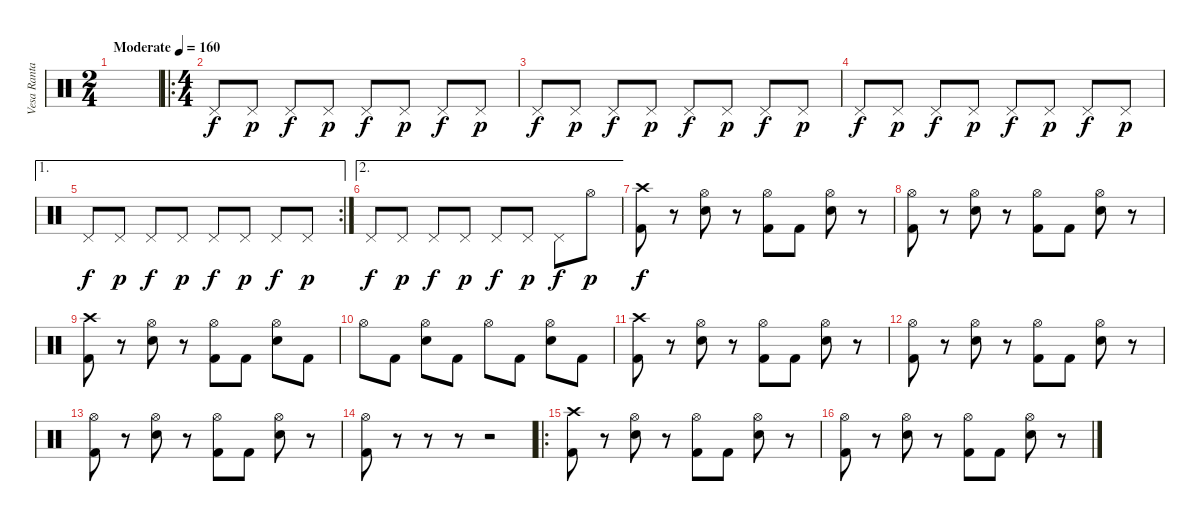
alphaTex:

\track ("Vesa Ranta" "Vesa Ranta") {instrument percussion}
\staff {score}
\articulation defaults
\ts (2 4)
\tempo (160 "Moderate")
\clef neutral
\ks c
|
\ro
\ts (4 4)
"Pedal Hi-Hat (hit)".8 "Pedal Hi-Hat (hit)".8{dy p} "Pedal Hi-Hat (hit)".8{dy f} "Pedal Hi-Hat (hit)".8{dy p} "Pedal Hi-Hat (hit)".8{dy f} "Pedal Hi-Hat (hit)".8{dy p} "Pedal Hi-Hat (hit)".8{dy f} "Pedal Hi-Hat (hit)".8{dy p} |
"Pedal Hi-Hat (hit)".8{dy f} "Pedal Hi-Hat (hit)".8{dy p} "Pedal Hi-Hat (hit)".8{dy f} "Pedal Hi-Hat (hit)".8{dy p} "Pedal Hi-Hat (hit)".8{dy f} "Pedal Hi-Hat (hit)".8{dy p} "Pedal Hi-Hat (hit)".8{dy f} "Pedal Hi-Hat (hit)".8{dy p} |
"Pedal Hi-Hat (hit)".8{dy f} "Pedal Hi-Hat (hit)".8{dy p} "Pedal Hi-Hat (hit)".8{dy f} "Pedal Hi-Hat (hit)".8{dy p} "Pedal Hi-Hat (hit)".8{dy f} "Pedal Hi-Hat (hit)".8{dy p} "Pedal Hi-Hat (hit)".8{dy f} "Pedal Hi-Hat (hit)".8{dy p} |
\ae 1
\rc 2 "Pedal Hi-Hat (hit)".8{dy f} "Pedal Hi-Hat (hit)".8{dy p} "Pedal Hi-Hat (hit)".8{dy f} "Pedal Hi-Hat (hit)".8{dy p} "Pedal Hi-Hat (hit)".8{dy f} "Pedal Hi-Hat (hit)".8{dy p} "Pedal Hi-Hat (hit)".8{dy f} "Pedal Hi-Hat (hit)".8{dy p}
|
\ae 2 "Pedal Hi-Hat (hit)".8{dy f} "Pedal Hi-Hat (hit)".8{dy p} "Pedal Hi-Hat (hit)".8{dy f} "Pedal Hi-Hat (hit)".8{dy p} "Pedal Hi-Hat (hit)".8{dy f} "Pedal Hi-Hat (hit)".8{dy p} "Pedal Hi-Hat (hit)".8{dy f} "Hi-Hat (open)".8{dy p}
|
("Crash high (hit)" "Kick (hit) 2").8{dy f} r.8 ("Hi-Hat (open)" "Electric Snare (hit)").8 r.8 ("Hi-Hat (open)" "Kick (hit) 2").8 "Kick (hit) 2".8 ("Hi-Hat (open)" "Electric Snare (hit)").8 r.8 |
("Hi-Hat (open)" "Kick (hit) 2").8 r.8 ("Hi-Hat (open)" "Electric Snare (hit)").8 r.8 ("Hi-Hat (open)" "Kick (hit) 2").8 "Kick (hit) 2".8 ("Hi-Hat (open)" "Electric Snare (hit)").8 r.8 |
("Crash high (hit)" "Kick (hit) 2").8 r.8 ("Hi-Hat (open)" "Electric Snare (hit)").8 r.8 ("Hi-Hat (open)" "Kick (hit) 2").8 "Kick (hit) 2".8 ("Hi-Hat (open)" "Electric Snare (hit)").8 "Kick (hit) 2".8 |
"Hi-Hat (open)".8 "Kick (hit) 2".8 ("Hi-Hat (open)" "Electric Snare (hit)").8 "Kick (hit) 2".8 "Hi-Hat (open)".8 "Kick (hit) 2".8 ("Hi-Hat (open)" "Electric Snare (hit)").8 "Kick (hit) 2".8 |
("Crash high (hit)" "Kick (hit) 2").8 r.8 ("Hi-Hat (open)" "Electric Snare (hit)").8 r.8 ("Hi-Hat (open)" "Kick (hit) 2").8 "Kick (hit) 2".8 ("Hi-Hat (open)" "Electric Snare (hit)").8 r.8 |
("Hi-Hat (open)" "Kick (hit) 2").8 r.8 ("Hi-Hat (open)" "Electric Snare (hit)").8 r.8 ("Hi-Hat (open)" "Kick (hit) 2").8 "Kick (hit) 2".8 ("Hi-Hat (open)" "Electric Snare (hit)").8 r.8 |
("Hi-Hat (open)" "Kick (hit) 2").8 r.8 ("Hi-Hat (open)" "Electric Snare (hit)").8 r.8 ("Hi-Hat (open)" "Kick (hit) 2").8 "Kick (hit) 2".8 ("Hi-Hat (open)" "Electric Snare (hit)").8 r.8 |
("Hi-Hat (open)" "Kick (hit) 2").8 r.8 r.8 r.8 r.2 |
\ro
("Crash high (hit)" "Kick (hit) 2").8 r.8 ("Hi-Hat (open)" "Electric Snare (hit)").8 r.8 ("Hi-Hat (open)" "Kick (hit) 2").8 "Kick (hit) 2".8 ("Hi-Hat (open)" "Electric Snare (hit)").8 r.8 |
("Hi-Hat (open)" "Kick (hit) 2").8 r.8 ("Hi-Hat (open)" "Electric Snare (hit)").8 r.8 ("Hi-Hat (open)" "Kick (hit) 2").8 "Kick (hit) 2".8 ("Hi-Hat (open)" "Electric Snare (hit)").8 r.8
